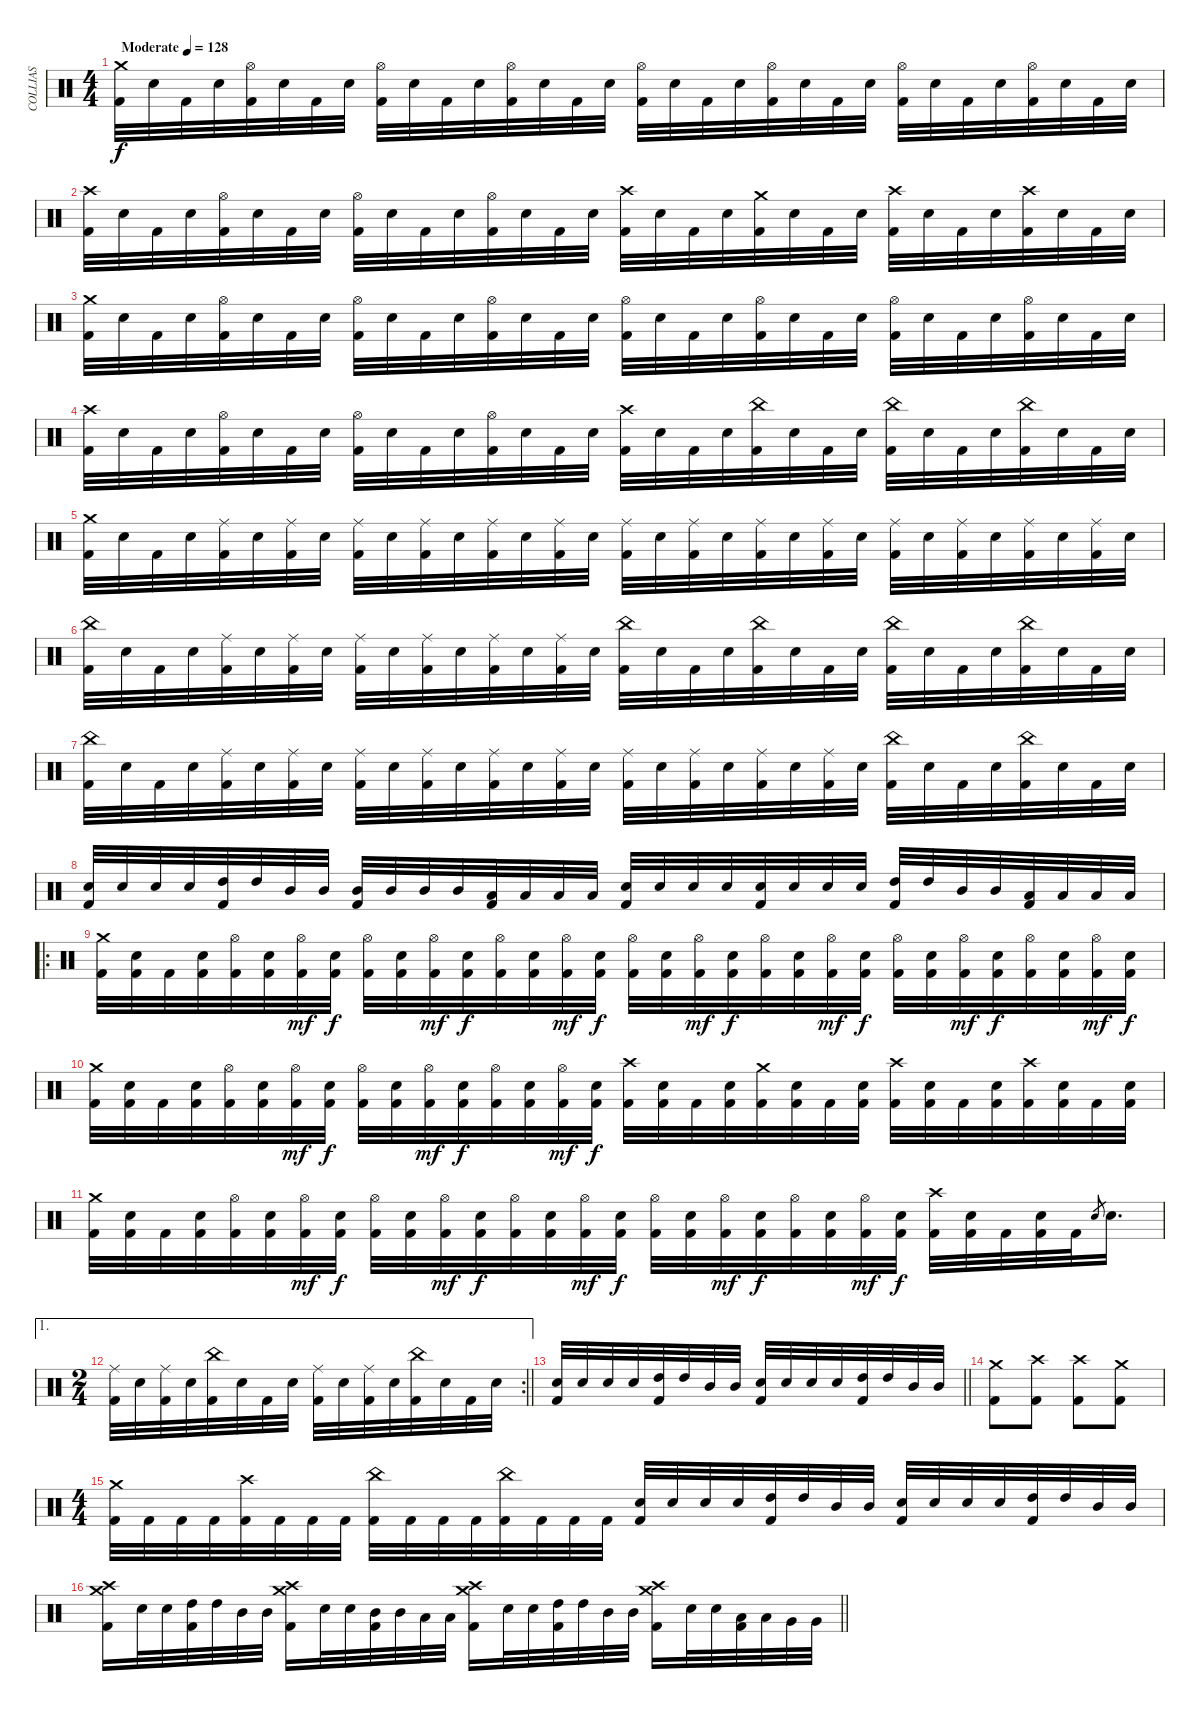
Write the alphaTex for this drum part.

\track ("COLLIAS" "COLLIAS") {instrument percussion}
\staff
\articulation defaults
\ts (4 4)
\tempo (128 "Moderate")
\clef neutral
\ks c
("Crash medium (hit)" "Kick (hit) 2").32{dy f} "Electric Snare (hit)".32 "Kick (hit) 2".32 "Electric Snare (hit)".32 ("Hi-Hat (open)" "Kick (hit) 2").32 "Electric Snare (hit)".32 "Kick (hit) 2".32 "Electric Snare (hit)".32 ("Hi-Hat (open)" "Kick (hit) 2").32 "Electric Snare (hit)".32 "Kick (hit) 2".32 "Electric Snare (hit)".32 ("Hi-Hat (open)" "Kick (hit) 2").32 "Electric Snare (hit)".32 "Kick (hit) 2".32 "Electric Snare (hit)".32 ("Hi-Hat (open)" "Kick (hit) 2").32 "Electric Snare (hit)".32 "Kick (hit) 2".32 "Electric Snare (hit)".32 ("Hi-Hat (open)" "Kick (hit) 2").32 "Electric Snare (hit)".32 "Kick (hit) 2".32 "Electric Snare (hit)".32 ("Hi-Hat (open)" "Kick (hit) 2").32 "Electric Snare (hit)".32 "Kick (hit) 2".32 "Electric Snare (hit)".32 ("Hi-Hat (open)" "Kick (hit) 2").32 "Electric Snare (hit)".32 "Kick (hit) 2".32 "Electric Snare (hit)".32 |
("Crash high (hit)" "Kick (hit) 2").32 "Electric Snare (hit)".32 "Kick (hit) 2".32 "Electric Snare (hit)".32 ("Hi-Hat (open)" "Kick (hit) 2").32 "Electric Snare (hit)".32 "Kick (hit) 2".32 "Electric Snare (hit)".32 ("Hi-Hat (open)" "Kick (hit) 2").32 "Electric Snare (hit)".32 "Kick (hit) 2".32 "Electric Snare (hit)".32 ("Hi-Hat (open)" "Kick (hit) 2").32 "Electric Snare (hit)".32 "Kick (hit) 2".32 "Electric Snare (hit)".32 ("Crash high (hit)" "Kick (hit) 2").32 "Electric Snare (hit)".32 "Kick (hit) 2".32 "Electric Snare (hit)".32 ("Crash medium (hit)" "Kick (hit) 2").32 "Electric Snare (hit)".32 "Kick (hit) 2".32 "Electric Snare (hit)".32 ("Crash high (hit)" "Kick (hit) 2").32 "Electric Snare (hit)".32 "Kick (hit) 2".32 "Electric Snare (hit)".32 ("Crash high (hit)" "Kick (hit) 2").32 "Electric Snare (hit)".32 "Kick (hit) 2".32 "Electric Snare (hit)".32 |
("Crash medium (hit)" "Kick (hit) 2").32 "Electric Snare (hit)".32 "Kick (hit) 2".32 "Electric Snare (hit)".32 ("Hi-Hat (open)" "Kick (hit) 2").32 "Electric Snare (hit)".32 "Kick (hit) 2".32 "Electric Snare (hit)".32 ("Hi-Hat (open)" "Kick (hit) 2").32 "Electric Snare (hit)".32 "Kick (hit) 2".32 "Electric Snare (hit)".32 ("Hi-Hat (open)" "Kick (hit) 2").32 "Electric Snare (hit)".32 "Kick (hit) 2".32 "Electric Snare (hit)".32 ("Hi-Hat (open)" "Kick (hit) 2").32 "Electric Snare (hit)".32 "Kick (hit) 2".32 "Electric Snare (hit)".32 ("Hi-Hat (open)" "Kick (hit) 2").32 "Electric Snare (hit)".32 "Kick (hit) 2".32 "Electric Snare (hit)".32 ("Hi-Hat (open)" "Kick (hit) 2").32 "Electric Snare (hit)".32 "Kick (hit) 2".32 "Electric Snare (hit)".32 ("Hi-Hat (open)" "Kick (hit) 2").32 "Electric Snare (hit)".32 "Kick (hit) 2".32 "Electric Snare (hit)".32 |
("Crash high (hit)" "Kick (hit) 2").32 "Electric Snare (hit)".32 "Kick (hit) 2".32 "Electric Snare (hit)".32 ("Hi-Hat (open)" "Kick (hit) 2").32 "Electric Snare (hit)".32 "Kick (hit) 2".32 "Electric Snare (hit)".32 ("Hi-Hat (open)" "Kick (hit) 2").32 "Electric Snare (hit)".32 "Kick (hit) 2".32 "Electric Snare (hit)".32 ("Hi-Hat (open)" "Kick (hit) 2").32 "Electric Snare (hit)".32 "Kick (hit) 2".32 "Electric Snare (hit)".32 ("Crash high (hit)" "Kick (hit) 2").32 "Electric Snare (hit)".32 "Kick (hit) 2".32 "Electric Snare (hit)".32 ("China (hit)" "Kick (hit) 2").32 "Electric Snare (hit)".32 "Kick (hit) 2".32 "Electric Snare (hit)".32 ("China (hit)" "Kick (hit) 2").32 "Electric Snare (hit)".32 "Kick (hit) 2".32 "Electric Snare (hit)".32 ("China (hit)" "Kick (hit) 2").32 "Electric Snare (hit)".32 "Kick (hit) 2".32 "Electric Snare (hit)".32 |
("Crash medium (hit)" "Kick (hit) 2").32 "Electric Snare (hit)".32 "Kick (hit) 2".32 "Electric Snare (hit)".32 ("Ride (middle)" "Kick (hit) 2").32 "Electric Snare (hit)".32 ("Ride (middle)" "Kick (hit) 2").32 "Electric Snare (hit)".32 ("Ride (middle)" "Kick (hit) 2").32 "Electric Snare (hit)".32 ("Ride (middle)" "Kick (hit) 2").32 "Electric Snare (hit)".32 ("Ride (middle)" "Kick (hit) 2").32 "Electric Snare (hit)".32 ("Ride (middle)" "Kick (hit) 2").32 "Electric Snare (hit)".32 ("Ride (middle)" "Kick (hit) 2").32 "Electric Snare (hit)".32 ("Ride (middle)" "Kick (hit) 2").32 "Electric Snare (hit)".32 ("Ride (middle)" "Kick (hit) 2").32 "Electric Snare (hit)".32 ("Ride (middle)" "Kick (hit) 2").32 "Electric Snare (hit)".32 ("Ride (middle)" "Kick (hit) 2").32 "Electric Snare (hit)".32 ("Ride (middle)" "Kick (hit) 2").32 "Electric Snare (hit)".32 ("Ride (middle)" "Kick (hit) 2").32 "Electric Snare (hit)".32 ("Ride (middle)" "Kick (hit) 2").32 "Electric Snare (hit)".32 |
("China (hit)" "Kick (hit) 2").32 "Electric Snare (hit)".32 "Kick (hit) 2".32 "Electric Snare (hit)".32 ("Ride (middle)" "Kick (hit) 2").32 "Electric Snare (hit)".32 ("Ride (middle)" "Kick (hit) 2").32 "Electric Snare (hit)".32 ("Ride (middle)" "Kick (hit) 2").32 "Electric Snare (hit)".32 ("Ride (middle)" "Kick (hit) 2").32 "Electric Snare (hit)".32 ("Ride (middle)" "Kick (hit) 2").32 "Electric Snare (hit)".32 ("Ride (middle)" "Kick (hit) 2").32 "Electric Snare (hit)".32 ("China (hit)" "Kick (hit) 2").32 "Electric Snare (hit)".32 "Kick (hit) 2".32 "Electric Snare (hit)".32 ("China (hit)" "Kick (hit) 2").32 "Electric Snare (hit)".32 "Kick (hit) 2".32 "Electric Snare (hit)".32 ("China (hit)" "Kick (hit) 2").32 "Electric Snare (hit)".32 "Kick (hit) 2".32 "Electric Snare (hit)".32 ("China (hit)" "Kick (hit) 2").32 "Electric Snare (hit)".32 "Kick (hit) 2".32 "Electric Snare (hit)".32 |
("China (hit)" "Kick (hit) 2").32 "Electric Snare (hit)".32 "Kick (hit) 2".32 "Electric Snare (hit)".32 ("Ride (middle)" "Kick (hit) 2").32 "Electric Snare (hit)".32 ("Ride (middle)" "Kick (hit) 2").32 "Electric Snare (hit)".32 ("Ride (middle)" "Kick (hit) 2").32 "Electric Snare (hit)".32 ("Ride (middle)" "Kick (hit) 2").32 "Electric Snare (hit)".32 ("Ride (middle)" "Kick (hit) 2").32 "Electric Snare (hit)".32 ("Ride (middle)" "Kick (hit) 2").32 "Electric Snare (hit)".32 ("Ride (middle)" "Kick (hit) 2").32 "Electric Snare (hit)".32 ("Ride (middle)" "Kick (hit) 2").32 "Electric Snare (hit)".32 ("Ride (middle)" "Kick (hit) 2").32 "Electric Snare (hit)".32 ("Ride (middle)" "Kick (hit) 2").32 "Electric Snare (hit)".32 ("China (hit)" "Kick (hit) 2").32 "Electric Snare (hit)".32 "Kick (hit) 2".32 "Electric Snare (hit)".32 ("China (hit)" "Kick (hit) 2").32 "Electric Snare (hit)".32 "Kick (hit) 2".32 "Electric Snare (hit)".32 |
("Electric Snare (hit)" "Kick (hit) 2").32 "Electric Snare (hit)".32 "Electric Snare (hit)".32 "Electric Snare (hit)".32 ("High Tom (hit)" "Kick (hit) 2").32 "High Tom (hit)".32 "Mid Tom (hit)".32 "Mid Tom (hit)".32 ("Mid Tom (hit)" "Kick (hit) 2").32 "Mid Tom (hit)".32 "Mid Tom (hit)".32 "Mid Tom (hit)".32 ("Low Tom (hit)" "Kick (hit) 2").32 "Low Tom (hit)".32 "Low Tom (hit)".32 "Low Tom (hit)".32 ("Electric Snare (hit)" "Kick (hit) 2").32 "Electric Snare (hit)".32 "Electric Snare (hit)".32 "Electric Snare (hit)".32 ("Electric Snare (hit)" "Kick (hit) 2").32 "Electric Snare (hit)".32 "Electric Snare (hit)".32 "Electric Snare (hit)".32 ("High Tom (hit)" "Kick (hit) 2").32 "High Tom (hit)".32 "Mid Tom (hit)".32 "Mid Tom (hit)".32 ("Low Tom (hit)" "Kick (hit) 2").32 "Low Tom (hit)".32 "Low Tom (hit)".32 "Low Tom (hit)".32 |
\ro
("Crash medium (hit)" "Kick (hit) 2").32 ("Electric Snare (hit)" "Kick (hit) 2").32 "Kick (hit) 2".32 ("Electric Snare (hit)" "Kick (hit) 2").32 ("Hi-Hat (open)" "Kick (hit) 2").32 ("Electric Snare (hit)" "Kick (hit) 2").32 ("Hi-Hat (open)" "Kick (hit) 2").32{dy mf} ("Electric Snare (hit)" "Kick (hit) 2").32{dy f} ("Hi-Hat (open)" "Kick (hit) 2").32 ("Electric Snare (hit)" "Kick (hit) 2").32 ("Hi-Hat (open)" "Kick (hit) 2").32{dy mf} ("Electric Snare (hit)" "Kick (hit) 2").32{dy f} ("Hi-Hat (open)" "Kick (hit) 2").32 ("Electric Snare (hit)" "Kick (hit) 2").32 ("Hi-Hat (open)" "Kick (hit) 2").32{dy mf} ("Electric Snare (hit)" "Kick (hit) 2").32{dy f} ("Hi-Hat (open)" "Kick (hit) 2").32 ("Electric Snare (hit)" "Kick (hit) 2").32 ("Hi-Hat (open)" "Kick (hit) 2").32{dy mf} ("Electric Snare (hit)" "Kick (hit) 2").32{dy f} ("Hi-Hat (open)" "Kick (hit) 2").32 ("Electric Snare (hit)" "Kick (hit) 2").32 ("Hi-Hat (open)" "Kick (hit) 2").32{dy mf} ("Electric Snare (hit)" "Kick (hit) 2").32{dy f} ("Hi-Hat (open)" "Kick (hit) 2").32 ("Electric Snare (hit)" "Kick (hit) 2").32 ("Hi-Hat (open)" "Kick (hit) 2").32{dy mf} ("Electric Snare (hit)" "Kick (hit) 2").32{dy f} ("Hi-Hat (open)" "Kick (hit) 2").32 ("Electric Snare (hit)" "Kick (hit) 2").32 ("Hi-Hat (open)" "Kick (hit) 2").32{dy mf} ("Electric Snare (hit)" "Kick (hit) 2").32{dy f} |
("Crash medium (hit)" "Kick (hit) 2").32 ("Electric Snare (hit)" "Kick (hit) 2").32 "Kick (hit) 2".32 ("Electric Snare (hit)" "Kick (hit) 2").32 ("Hi-Hat (open)" "Kick (hit) 2").32 ("Electric Snare (hit)" "Kick (hit) 2").32 ("Hi-Hat (open)" "Kick (hit) 2").32{dy mf} ("Electric Snare (hit)" "Kick (hit) 2").32{dy f} ("Hi-Hat (open)" "Kick (hit) 2").32 ("Electric Snare (hit)" "Kick (hit) 2").32 ("Hi-Hat (open)" "Kick (hit) 2").32{dy mf} ("Electric Snare (hit)" "Kick (hit) 2").32{dy f} ("Hi-Hat (open)" "Kick (hit) 2").32 ("Electric Snare (hit)" "Kick (hit) 2").32 ("Hi-Hat (open)" "Kick (hit) 2").32{dy mf} ("Electric Snare (hit)" "Kick (hit) 2").32{dy f} ("Crash high (hit)" "Kick (hit) 2").32 ("Electric Snare (hit)" "Kick (hit) 2").32 "Kick (hit) 2".32 ("Electric Snare (hit)" "Kick (hit) 2").32 ("Crash medium (hit)" "Kick (hit) 2").32 ("Electric Snare (hit)" "Kick (hit) 2").32 "Kick (hit) 2".32 ("Electric Snare (hit)" "Kick (hit) 2").32 ("Crash high (hit)" "Kick (hit) 2").32 ("Electric Snare (hit)" "Kick (hit) 2").32 "Kick (hit) 2".32 ("Electric Snare (hit)" "Kick (hit) 2").32 ("Crash high (hit)" "Kick (hit) 2").32 ("Electric Snare (hit)" "Kick (hit) 2").32 "Kick (hit) 2".32 ("Electric Snare (hit)" "Kick (hit) 2").32 |
("Crash medium (hit)" "Kick (hit) 2").32 ("Electric Snare (hit)" "Kick (hit) 2").32 "Kick (hit) 2".32 ("Electric Snare (hit)" "Kick (hit) 2").32 ("Hi-Hat (open)" "Kick (hit) 2").32 ("Electric Snare (hit)" "Kick (hit) 2").32 ("Hi-Hat (open)" "Kick (hit) 2").32{dy mf} ("Electric Snare (hit)" "Kick (hit) 2").32{dy f} ("Hi-Hat (open)" "Kick (hit) 2").32 ("Electric Snare (hit)" "Kick (hit) 2").32 ("Hi-Hat (open)" "Kick (hit) 2").32{dy mf} ("Electric Snare (hit)" "Kick (hit) 2").32{dy f} ("Hi-Hat (open)" "Kick (hit) 2").32 ("Electric Snare (hit)" "Kick (hit) 2").32 ("Hi-Hat (open)" "Kick (hit) 2").32{dy mf} ("Electric Snare (hit)" "Kick (hit) 2").32{dy f} ("Hi-Hat (open)" "Kick (hit) 2").32 ("Electric Snare (hit)" "Kick (hit) 2").32 ("Hi-Hat (open)" "Kick (hit) 2").32{dy mf} ("Electric Snare (hit)" "Kick (hit) 2").32{dy f} ("Hi-Hat (open)" "Kick (hit) 2").32 ("Electric Snare (hit)" "Kick (hit) 2").32 ("Hi-Hat (open)" "Kick (hit) 2").32{dy mf} ("Electric Snare (hit)" "Kick (hit) 2").32{dy f} ("Crash high (hit)" "Kick (hit) 2").32 ("Electric Snare (hit)" "Kick (hit) 2").32 "Kick (hit) 2".32 ("Electric Snare (hit)" "Kick (hit) 2").32 "Kick (hit) 2".32 "Electric Snare (hit)".8{gr} "Electric Snare (hit)".16{d} |
\ae 1
\rc 2
\ts (2 4)
\barLineRight lightlight
("Ride (middle)" "Kick (hit) 2").32 "Electric Snare (hit)".32 ("Ride (middle)" "Kick (hit) 2").32 "Electric Snare (hit)".32 ("China (hit)" "Kick (hit) 2").32 "Electric Snare (hit)".32 "Kick (hit) 2".32 "Electric Snare (hit)".32 ("Ride (middle)" "Kick (hit) 2").32 "Electric Snare (hit)".32 ("Ride (middle)" "Kick (hit) 2").32 "Electric Snare (hit)".32 ("China (hit)" "Kick (hit) 2").32 "Electric Snare (hit)".32 "Kick (hit) 2".32 "Electric Snare (hit)".32 |
\barLineRight lightlight
("Electric Snare (hit)" "Kick (hit) 2").32 "Electric Snare (hit)".32 "Electric Snare (hit)".32 "Electric Snare (hit)".32 ("High Tom (hit)" "Kick (hit) 2").32 "High Tom (hit)".32 "Mid Tom (hit)".32 "Mid Tom (hit)".32 ("Electric Snare (hit)" "Kick (hit) 2").32 "Electric Snare (hit)".32 "Electric Snare (hit)".32 "Electric Snare (hit)".32 ("High Tom (hit)" "Kick (hit) 2").32 "High Tom (hit)".32 "Mid Tom (hit)".32 "Mid Tom (hit)".32 |
("Crash medium (hit)" "Kick (hit) 2").8 ("Crash high (hit)" "Kick (hit) 2").8 ("Crash high (hit)" "Kick (hit) 2").8 ("Crash medium (hit)" "Kick (hit) 2").8 |
\ts (4 4)
("Crash medium (hit)" "Kick (hit) 2").32 "Kick (hit) 2".32 "Kick (hit) 2".32 "Kick (hit) 2".32 ("Crash high (hit)" "Kick (hit) 2").32 "Kick (hit) 2".32 "Kick (hit) 2".32 "Kick (hit) 2".32 ("China (hit)" "Kick (hit) 2").32 "Kick (hit) 2".32 "Kick (hit) 2".32 "Kick (hit) 2".32 ("China (hit)" "Kick (hit) 2").32 "Kick (hit) 2".32 "Kick (hit) 2".32 "Kick (hit) 2".32 ("Electric Snare (hit)" "Kick (hit) 2").32 "Electric Snare (hit)".32 "Electric Snare (hit)".32 "Electric Snare (hit)".32 ("High Tom (hit)" "Kick (hit) 2").32 "High Tom (hit)".32 "Mid Tom (hit)".32 "Mid Tom (hit)".32 ("Electric Snare (hit)" "Kick (hit) 2").32 "Electric Snare (hit)".32 "Electric Snare (hit)".32 "Electric Snare (hit)".32 ("High Tom (hit)" "Kick (hit) 2").32 "High Tom (hit)".32 "Mid Tom (hit)".32 "Mid Tom (hit)".32 |
\barLineRight lightlight
("Crash medium (hit)" "Crash high (hit)" "Kick (hit) 2").16 "Electric Snare (hit)".32 "Electric Snare (hit)".32 ("High Tom (hit)" "Kick (hit) 2").32 "High Tom (hit)".32 "Mid Tom (hit)".32 "Mid Tom (hit)".32 ("Crash high (hit)" "Crash medium (hit)" "Kick (hit) 2").16 "Electric Snare (hit)".32 "Electric Snare (hit)".32 ("Mid Tom (hit)" "Kick (hit) 2").32 "Mid Tom (hit)".32 "Low Tom (hit)".32 "Low Tom (hit)".32 ("Crash medium (hit)" "Crash high (hit)" "Kick (hit) 2").16 "Electric Snare (hit)".32 "Electric Snare (hit)".32 ("High Tom (hit)" "Kick (hit) 2").32 "High Tom (hit)".32 "Mid Tom (hit)".32 "Mid Tom (hit)".32 ("Crash high (hit)" "Crash medium (hit)" "Kick (hit) 2").16 "Electric Snare (hit)".32 "Electric Snare (hit)".32 ("Low Tom (hit)" "Kick (hit) 2").32 "Low Tom (hit)".32 "Very Low Tom (hit)".32 "Very Low Tom (hit)".32
